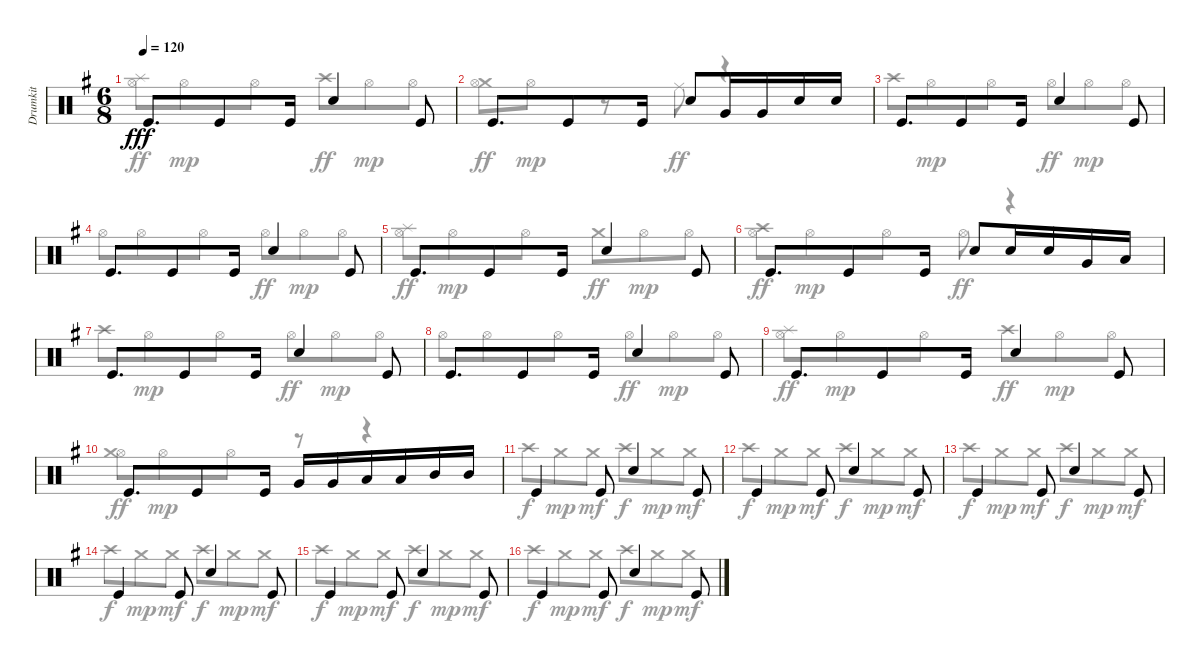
\track ("Drumkit" "Drumkit") {instrument percussion}
\staff {score}
\articulation defaults
\voice
\ts (6 8)
\tempo 120
\clef neutral
\ks eminor "Kick (hit)".8{d dy fff} "Kick (hit)".8 "Kick (hit)".16 "Snare (hit) 2".4 "Kick (hit)".8
|
"Kick (hit)".8{d} "Kick (hit)".8 "Kick (hit)".16 "Snare (hit) 2".8 "Very Low Tom (hit)".16 "Very Low Tom (hit)".16 "Snare (hit) 2".16 "Snare (hit) 2".16 |
"Kick (hit)".8{d} "Kick (hit)".8 "Kick (hit)".16 "Snare (hit) 2".4 "Kick (hit)".8 |
"Kick (hit)".8{d} "Kick (hit)".8 "Kick (hit)".16 "Snare (hit) 2".4 "Kick (hit)".8 |
"Kick (hit)".8{d} "Kick (hit)".8 "Kick (hit)".16 "Snare (hit) 2".4 "Kick (hit)".8 |
"Kick (hit)".8{d} "Kick (hit)".8 "Kick (hit)".16 "Snare (hit) 2".8 "Snare (hit) 2".16 "Snare (hit) 2".16 "Very Low Tom (hit)".16 "Low Floor Tom (hit)".16 |
"Kick (hit)".8{d} "Kick (hit)".8 "Kick (hit)".16 "Snare (hit) 2".4 "Kick (hit)".8 |
"Kick (hit)".8{d} "Kick (hit)".8 "Kick (hit)".16 "Snare (hit) 2".4 "Kick (hit)".8 |
"Kick (hit)".8{d} "Kick (hit)".8 "Kick (hit)".16 "Snare (hit) 2".4 "Kick (hit)".8 |
"Kick (hit)".8{d} "Kick (hit)".8 "Kick (hit)".16 "Very Low Tom (hit)".16 "Very Low Tom (hit)".16 "Low Tom (hit)".16 "Low Tom (hit)".16 "Mid Tom (hit)".16 "Mid Tom (hit)".16 |
"Kick (hit)".4 "Kick (hit)".8 "Snare (hit) 2".4 "Kick (hit)".8 |
"Kick (hit)".4 "Kick (hit)".8 "Snare (hit) 2".4 "Kick (hit)".8 |
"Kick (hit)".4 "Kick (hit)".8 "Snare (hit) 2".4 "Kick (hit)".8 |
"Kick (hit)".4 "Kick (hit)".8 "Snare (hit) 2".4 "Kick (hit)".8 |
"Kick (hit)".4 "Kick (hit)".8 "Snare (hit) 2".4 "Kick (hit)".8 |
"Kick (hit)".4 "Kick (hit)".8 "Snare (hit) 2".4 "Kick (hit)".8
\voice
\clef neutral
\ottava regular
\simile none
\ks eminor
("Splash (hit)" "Hi-Hat (open)").8{dy ff} "Hi-Hat (open)".8{dy mp} "Hi-Hat (open)".8 "Crash high (hit)".8{dy ff} "Hi-Hat (open)".8{dy mp} "Hi-Hat (open)".8 |
("Crash medium (hit)" "Hi-Hat (open)").8{dy ff} "Hi-Hat (open)".8{dy mp} r.8 "Ride (middle)".8{dy ff} r.4 |
"Crash high (hit)".8 "Hi-Hat (open)".8{dy mp} "Hi-Hat (open)".8 "Hi-Hat (open)".8{dy ff} "Hi-Hat (open)".8{dy mp} "Hi-Hat (open)".8 |
"Hi-Hat (open)".8 "Hi-Hat (open)".8 "Hi-Hat (open)".8 "Hi-Hat (open)".8{dy ff} "Hi-Hat (open)".8{dy mp} "Hi-Hat (open)".8 |
("Splash (hit)" "Hi-Hat (open)").8{dy ff} "Hi-Hat (open)".8{dy mp} "Hi-Hat (open)".8 "Crash medium (hit)".8{dy ff} "Hi-Hat (open)".8{dy mp} "Hi-Hat (open)".8 |
("Crash high (hit)" "Hi-Hat (open)").8{dy ff} "Hi-Hat (open)".8{dy mp} "Hi-Hat (open)".8 "Hi-Hat (open)".8{dy ff} r.4 |
"Crash high (hit)".8 "Hi-Hat (open)".8{dy mp} "Hi-Hat (open)".8 "Hi-Hat (open)".8{dy ff} "Hi-Hat (open)".8{dy mp} "Hi-Hat (open)".8 |
"Hi-Hat (open)".8 "Hi-Hat (open)".8 "Hi-Hat (open)".8 "Hi-Hat (open)".8{dy ff} "Hi-Hat (open)".8{dy mp} "Hi-Hat (open)".8 |
("Splash (hit)" "Hi-Hat (open)").8{dy ff} "Hi-Hat (open)".8{dy mp} "Hi-Hat (open)".8 "Crash high (hit)".8{dy ff} "Hi-Hat (open)".8{dy mp} "Hi-Hat (open)".8 |
("Hi-Hat (open)" "Crash medium (hit)").8{dy ff} "Hi-Hat (open)".8{dy mp} "Hi-Hat (open)".8 r.8 r.4 |
"Crash high (hit)".8{dy f} "Crash medium (hit)".8{dy mp} "Crash medium (hit)".8{dy mf} "Crash high (hit)".8{dy f} "Crash medium (hit)".8{dy mp} "Crash medium (hit)".8{dy mf} |
"Crash high (hit)".8{dy f} "Crash medium (hit)".8{dy mp} "Crash medium (hit)".8{dy mf} "Crash high (hit)".8{dy f} "Crash medium (hit)".8{dy mp} "Crash medium (hit)".8{dy mf} |
"Crash high (hit)".8{dy f} "Crash medium (hit)".8{dy mp} "Crash medium (hit)".8{dy mf} "Crash high (hit)".8{dy f} "Crash medium (hit)".8{dy mp} "Crash medium (hit)".8{dy mf} |
"Crash high (hit)".8{dy f} "Crash medium (hit)".8{dy mp} "Crash medium (hit)".8{dy mf} "Crash high (hit)".8{dy f} "Crash medium (hit)".8{dy mp} "Crash medium (hit)".8{dy mf} |
"Crash high (hit)".8{dy f} "Crash medium (hit)".8{dy mp} "Crash medium (hit)".8{dy mf} "Crash high (hit)".8{dy f} "Crash medium (hit)".8{dy mp} "Crash medium (hit)".8{dy mf} |
"Crash high (hit)".8{dy f} "Crash medium (hit)".8{dy mp} "Crash medium (hit)".8{dy mf} "Crash high (hit)".8{dy f} "Crash medium (hit)".8{dy mp} "Crash medium (hit)".8{dy mf}
